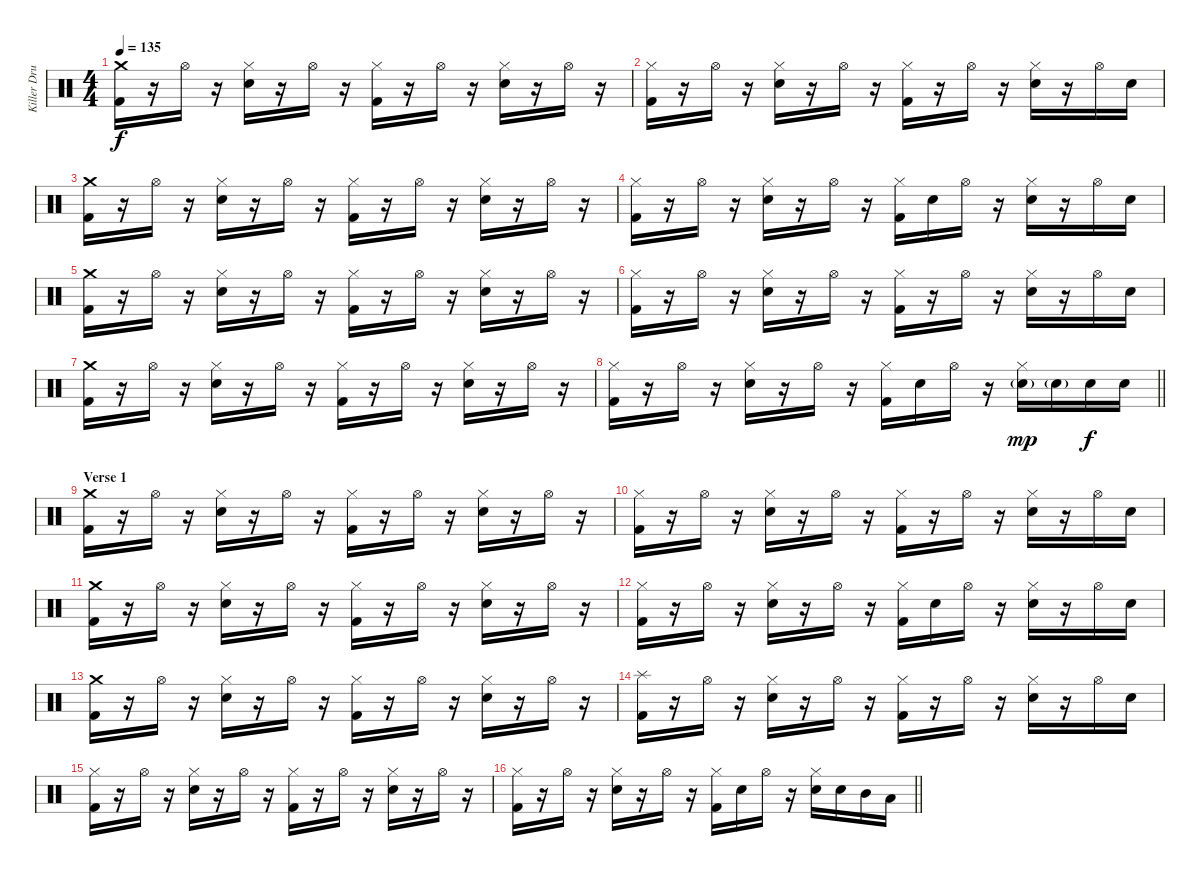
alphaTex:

\track ("Killer Drummer" "Killer Dru") {instrument percussion}
\staff {score}
\articulation defaults
\ts (4 4)
\tempo 135
\clef neutral
\ks c
("Crash medium (hit)" "Kick (hit) 2").16{dy f} r.16 "Hi-Hat (open)".16 r.16 ("Hi-Hat (closed)" "Electric Snare (hit)").16 r.16 "Hi-Hat (open)".16 r.16 ("Hi-Hat (closed)" "Kick (hit) 2").16 r.16 "Hi-Hat (open)".16 r.16 ("Hi-Hat (closed)" "Electric Snare (hit)").16 r.16 "Hi-Hat (open)".16 r.16 |
("Hi-Hat (closed)" "Kick (hit) 2").16 r.16 "Hi-Hat (open)".16 r.16 ("Hi-Hat (closed)" "Electric Snare (hit)").16 r.16 "Hi-Hat (open)".16 r.16 ("Hi-Hat (closed)" "Kick (hit) 2").16 r.16 "Hi-Hat (open)".16 r.16 ("Hi-Hat (closed)" "Electric Snare (hit)").16 r.16 "Hi-Hat (open)".16 "Electric Snare (hit)".16 |
("Crash medium (hit)" "Kick (hit) 2").16 r.16 "Hi-Hat (open)".16 r.16 ("Hi-Hat (closed)" "Electric Snare (hit)").16 r.16 "Hi-Hat (open)".16 r.16 ("Hi-Hat (closed)" "Kick (hit) 2").16 r.16 "Hi-Hat (open)".16 r.16 ("Hi-Hat (closed)" "Electric Snare (hit)").16 r.16 "Hi-Hat (open)".16 r.16 |
("Hi-Hat (closed)" "Kick (hit) 2").16 r.16 "Hi-Hat (open)".16 r.16 ("Hi-Hat (closed)" "Electric Snare (hit)").16 r.16 "Hi-Hat (open)".16 r.16 ("Hi-Hat (closed)" "Kick (hit) 2").16 "Electric Snare (hit)".16 "Hi-Hat (open)".16 r.16 ("Hi-Hat (closed)" "Electric Snare (hit)").16 r.16 "Hi-Hat (open)".16 "Electric Snare (hit)".16 |
("Crash medium (hit)" "Kick (hit) 2").16 r.16 "Hi-Hat (open)".16 r.16 ("Hi-Hat (closed)" "Electric Snare (hit)").16 r.16 "Hi-Hat (open)".16 r.16 ("Hi-Hat (closed)" "Kick (hit) 2").16 r.16 "Hi-Hat (open)".16 r.16 ("Hi-Hat (closed)" "Electric Snare (hit)").16 r.16 "Hi-Hat (open)".16 r.16 |
("Hi-Hat (closed)" "Kick (hit) 2").16 r.16 "Hi-Hat (open)".16 r.16 ("Hi-Hat (closed)" "Electric Snare (hit)").16 r.16 "Hi-Hat (open)".16 r.16 ("Hi-Hat (closed)" "Kick (hit) 2").16 r.16 "Hi-Hat (open)".16 r.16 ("Hi-Hat (closed)" "Electric Snare (hit)").16 r.16 "Hi-Hat (open)".16 "Electric Snare (hit)".16 |
("Crash medium (hit)" "Kick (hit) 2").16 r.16 "Hi-Hat (open)".16 r.16 ("Hi-Hat (closed)" "Electric Snare (hit)").16 r.16 "Hi-Hat (open)".16 r.16 ("Hi-Hat (closed)" "Kick (hit) 2").16 r.16 "Hi-Hat (open)".16 r.16 ("Hi-Hat (closed)" "Electric Snare (hit)").16 r.16 "Hi-Hat (open)".16 r.16 |
\barLineRight lightlight
("Hi-Hat (closed)" "Kick (hit) 2").16 r.16 "Hi-Hat (open)".16 r.16 ("Hi-Hat (closed)" "Electric Snare (hit)").16 r.16 "Hi-Hat (open)".16 r.16 ("Hi-Hat (closed)" "Kick (hit) 2").16 "Electric Snare (hit)".16 "Hi-Hat (open)".16 r.16 ("Hi-Hat (closed)" "Electric Snare (hit)"{g}).16{dy mp} "Electric Snare (hit)"{g}.16 "Electric Snare (hit)".16{dy f} "Electric Snare (hit)".16 |
\section ("" "Verse 1")
("Crash medium (hit)" "Kick (hit) 2").16 r.16 "Hi-Hat (open)".16 r.16 ("Hi-Hat (closed)" "Electric Snare (hit)").16 r.16 "Hi-Hat (open)".16 r.16 ("Hi-Hat (closed)" "Kick (hit) 2").16 r.16 "Hi-Hat (open)".16 r.16 ("Hi-Hat (closed)" "Electric Snare (hit)").16 r.16 "Hi-Hat (open)".16 r.16 |
("Hi-Hat (closed)" "Kick (hit) 2").16 r.16 "Hi-Hat (open)".16 r.16 ("Hi-Hat (closed)" "Electric Snare (hit)").16 r.16 "Hi-Hat (open)".16 r.16 ("Hi-Hat (closed)" "Kick (hit) 2").16 r.16 "Hi-Hat (open)".16 r.16 ("Hi-Hat (closed)" "Electric Snare (hit)").16 r.16 "Hi-Hat (open)".16 "Electric Snare (hit)".16 |
("Crash medium (hit)" "Kick (hit) 2").16 r.16 "Hi-Hat (open)".16 r.16 ("Hi-Hat (closed)" "Electric Snare (hit)").16 r.16 "Hi-Hat (open)".16 r.16 ("Hi-Hat (closed)" "Kick (hit) 2").16 r.16 "Hi-Hat (open)".16 r.16 ("Hi-Hat (closed)" "Electric Snare (hit)").16 r.16 "Hi-Hat (open)".16 r.16 |
("Hi-Hat (closed)" "Kick (hit) 2").16 r.16 "Hi-Hat (open)".16 r.16 ("Hi-Hat (closed)" "Electric Snare (hit)").16 r.16 "Hi-Hat (open)".16 r.16 ("Hi-Hat (closed)" "Kick (hit) 2").16 "Electric Snare (hit)".16 "Hi-Hat (open)".16 r.16 ("Hi-Hat (closed)" "Electric Snare (hit)").16 r.16 "Hi-Hat (open)".16 "Electric Snare (hit)".16 |
("Crash medium (hit)" "Kick (hit) 2").16 r.16 "Hi-Hat (open)".16 r.16 ("Hi-Hat (closed)" "Electric Snare (hit)").16 r.16 "Hi-Hat (open)".16 r.16 ("Hi-Hat (closed)" "Kick (hit) 2").16 r.16 "Hi-Hat (open)".16 r.16 ("Hi-Hat (closed)" "Electric Snare (hit)").16 r.16 "Hi-Hat (open)".16 r.16 |
("Splash (hit)" "Kick (hit) 2").16 r.16 "Hi-Hat (open)".16 r.16 ("Hi-Hat (closed)" "Electric Snare (hit)").16 r.16 "Hi-Hat (open)".16 r.16 ("Hi-Hat (closed)" "Kick (hit) 2").16 r.16 "Hi-Hat (open)".16 r.16 ("Hi-Hat (closed)" "Electric Snare (hit)").16 r.16 "Hi-Hat (open)".16 "Electric Snare (hit)".16 |
("Hi-Hat (closed)" "Kick (hit) 2").16 r.16 "Hi-Hat (open)".16 r.16 ("Hi-Hat (closed)" "Electric Snare (hit)").16 r.16 "Hi-Hat (open)".16 r.16 ("Hi-Hat (closed)" "Kick (hit) 2").16 r.16 "Hi-Hat (open)".16 r.16 ("Hi-Hat (closed)" "Electric Snare (hit)").16 r.16 "Hi-Hat (open)".16 r.16 |
\barLineRight lightlight
("Hi-Hat (closed)" "Kick (hit) 2").16 r.16 "Hi-Hat (open)".16 r.16 ("Hi-Hat (closed)" "Electric Snare (hit)").16 r.16 "Hi-Hat (open)".16 r.16 ("Hi-Hat (closed)" "Kick (hit) 2").16 "Electric Snare (hit)".16 "Hi-Hat (open)".16 r.16 ("Hi-Hat (closed)" "Electric Snare (hit)").16 "Electric Snare (hit)".16 "Mid Tom (hit)".16 "Low Tom (hit)".16
